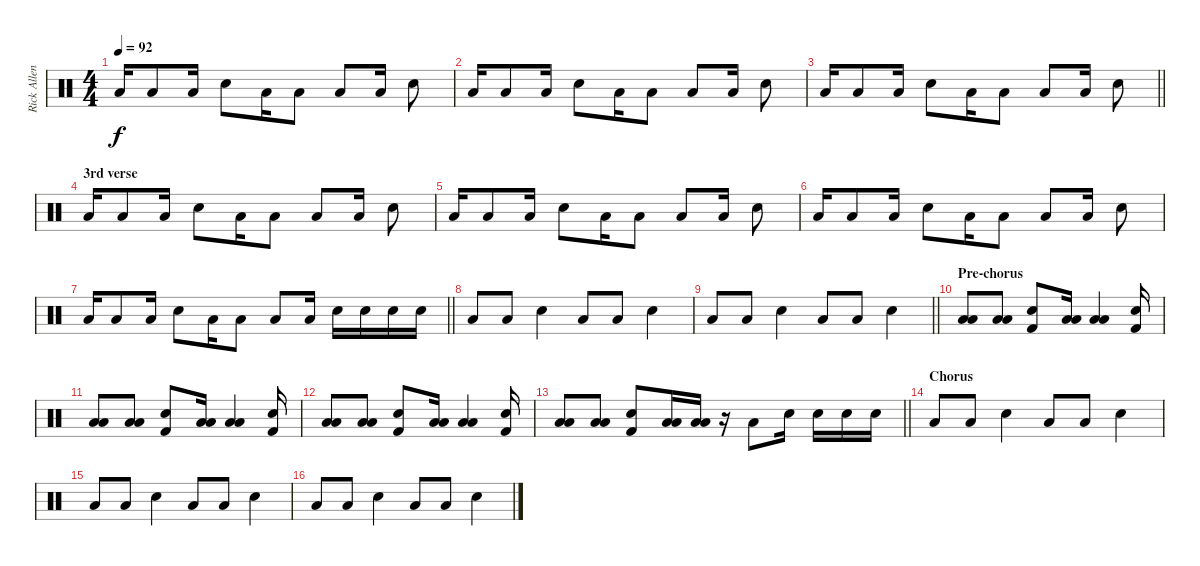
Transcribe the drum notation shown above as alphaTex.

\track ("Rick Allen" "Rick Allen") {instrument percussion}
\staff {score}
\articulation defaults
\ts (4 4)
\tempo 92
\clef neutral
\ks c "Low Floor Tom (hit)".16{dy f} "Low Floor Tom (hit)".8 "Low Floor Tom (hit)".16 "Snare (hit) 2".8 "Low Floor Tom (hit)".16 "Low Floor Tom (hit)".8 "Low Floor Tom (hit)".8 "Low Floor Tom (hit)".16 "Snare (hit) 2".8
|
"Low Floor Tom (hit)".16 "Low Floor Tom (hit)".8 "Low Floor Tom (hit)".16 "Snare (hit) 2".8 "Low Floor Tom (hit)".16 "Low Floor Tom (hit)".8 "Low Floor Tom (hit)".8 "Low Floor Tom (hit)".16 "Snare (hit) 2".8 |
\barLineRight lightlight "Low Floor Tom (hit)".16 "Low Floor Tom (hit)".8 "Low Floor Tom (hit)".16 "Snare (hit) 2".8 "Low Floor Tom (hit)".16 "Low Floor Tom (hit)".8 "Low Floor Tom (hit)".8 "Low Floor Tom (hit)".16 "Snare (hit) 2".8
|
\section ("" "3rd verse")
"Low Floor Tom (hit)".16 "Low Floor Tom (hit)".8 "Low Floor Tom (hit)".16 "Snare (hit) 2".8 "Low Floor Tom (hit)".16 "Low Floor Tom (hit)".8 "Low Floor Tom (hit)".8 "Low Floor Tom (hit)".16 "Snare (hit) 2".8 |
"Low Floor Tom (hit)".16 "Low Floor Tom (hit)".8 "Low Floor Tom (hit)".16 "Snare (hit) 2".8 "Low Floor Tom (hit)".16 "Low Floor Tom (hit)".8 "Low Floor Tom (hit)".8 "Low Floor Tom (hit)".16 "Snare (hit) 2".8 |
"Low Floor Tom (hit)".16 "Low Floor Tom (hit)".8 "Low Floor Tom (hit)".16 "Snare (hit) 2".8 "Low Floor Tom (hit)".16 "Low Floor Tom (hit)".8 "Low Floor Tom (hit)".8 "Low Floor Tom (hit)".16 "Snare (hit) 2".8 |
\barLineRight lightlight "Low Floor Tom (hit)".16 "Low Floor Tom (hit)".8 "Low Floor Tom (hit)".16 "Snare (hit) 2".8 "Low Floor Tom (hit)".16 "Low Floor Tom (hit)".8 "Low Floor Tom (hit)".8 "Low Floor Tom (hit)".16 "Snare (hit) 2".16 "Snare (hit) 2".16 "Snare (hit) 2".16 "Snare (hit) 2".16
|
"Low Floor Tom (hit)".8 "Low Floor Tom (hit)".8 "Snare (hit) 2".4 "Low Floor Tom (hit)".8 "Low Floor Tom (hit)".8 "Snare (hit) 2".4 |
\barLineRight lightlight "Low Floor Tom (hit)".8 "Low Floor Tom (hit)".8 "Snare (hit) 2".4 "Low Floor Tom (hit)".8 "Low Floor Tom (hit)".8 "Snare (hit) 2".4
|
\section ("" "Pre-chorus")
("Low Floor Tom (hit)" "Low Floor Tom (hit)").8 ("Low Floor Tom (hit)" "Low Floor Tom (hit)").8 ("Snare (hit) 2" "Kick (hit) 2").8 ("Low Floor Tom (hit)" "Low Floor Tom (hit)").16 ("Low Floor Tom (hit)" "Low Floor Tom (hit)").4 ("Kick (hit) 2" "Snare (hit) 2").16 |
("Low Floor Tom (hit)" "Low Floor Tom (hit)").8 ("Low Floor Tom (hit)" "Low Floor Tom (hit)").8 ("Snare (hit) 2" "Kick (hit) 2").8 ("Low Floor Tom (hit)" "Low Floor Tom (hit)").16 ("Low Floor Tom (hit)" "Low Floor Tom (hit)").4 ("Kick (hit) 2" "Snare (hit) 2").16 |
("Low Floor Tom (hit)" "Low Floor Tom (hit)").8 ("Low Floor Tom (hit)" "Low Floor Tom (hit)").8 ("Snare (hit) 2" "Kick (hit) 2").8 ("Low Floor Tom (hit)" "Low Floor Tom (hit)").16 ("Low Floor Tom (hit)" "Low Floor Tom (hit)").4 ("Kick (hit) 2" "Snare (hit) 2").16 |
\barLineRight lightlight
("Low Floor Tom (hit)" "Low Floor Tom (hit)").8 ("Low Floor Tom (hit)" "Low Floor Tom (hit)").8 ("Snare (hit) 2" "Kick (hit) 2").8 ("Low Floor Tom (hit)" "Low Floor Tom (hit)").16 ("Low Floor Tom (hit)" "Low Floor Tom (hit)").16 r.16 "Low Floor Tom (hit)".8 "Snare (hit) 2".16 "Snare (hit) 2".16 "Snare (hit) 2".16 "Snare (hit) 2".16 |
\section ("" "Chorus")
"Low Floor Tom (hit)".8 "Low Floor Tom (hit)".8 "Snare (hit) 2".4 "Low Floor Tom (hit)".8 "Low Floor Tom (hit)".8 "Snare (hit) 2".4 |
"Low Floor Tom (hit)".8 "Low Floor Tom (hit)".8 "Snare (hit) 2".4 "Low Floor Tom (hit)".8 "Low Floor Tom (hit)".8 "Snare (hit) 2".4 |
"Low Floor Tom (hit)".8 "Low Floor Tom (hit)".8 "Snare (hit) 2".4 "Low Floor Tom (hit)".8 "Low Floor Tom (hit)".8 "Snare (hit) 2".4
